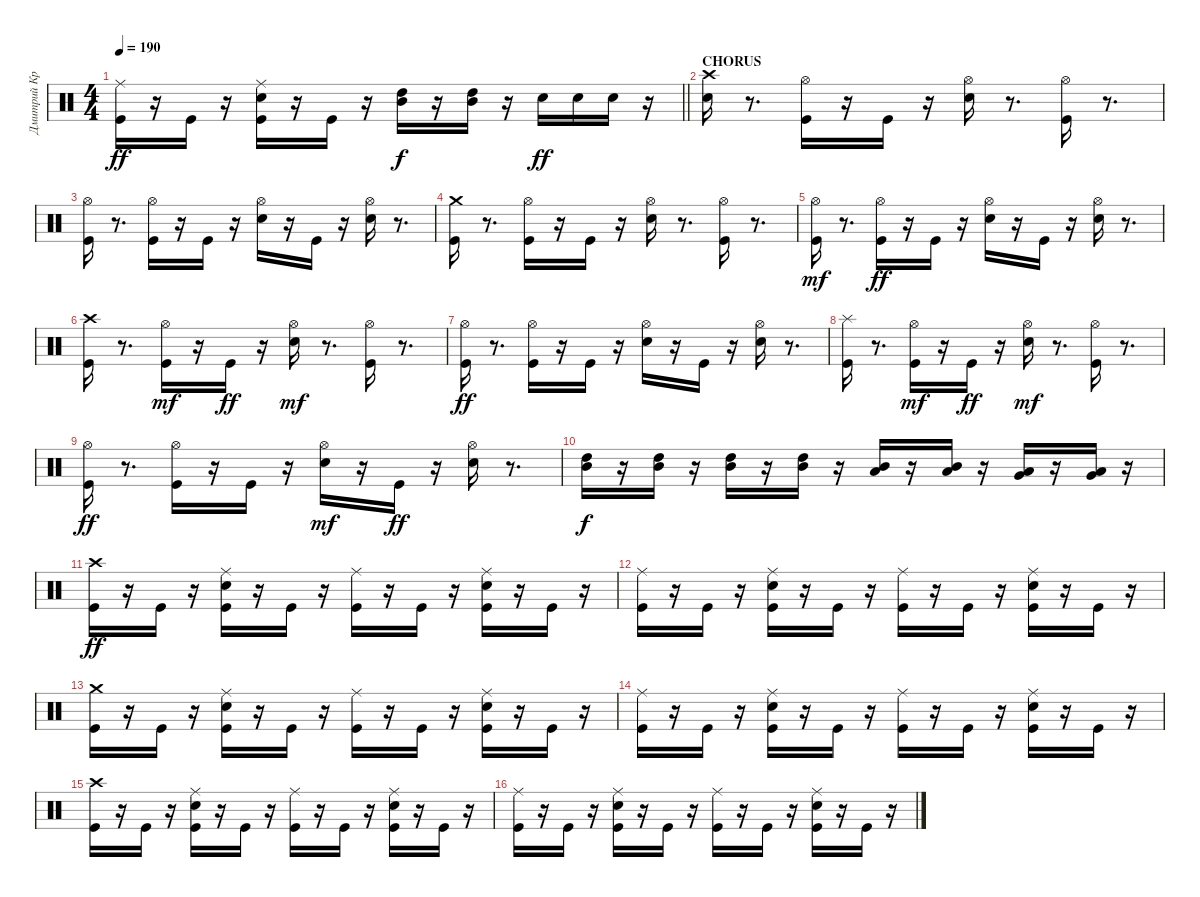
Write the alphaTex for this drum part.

\track ("Дмитрий Кривенков" "Дмитрий Кр") {instrument percussion}
\staff {score}
\articulation defaults
\ts (4 4)
\tempo 190
\clef neutral
\barLineRight lightlight
\ks c
("Ride (middle)" "Kick (hit)").16{dy ff} r.16 "Kick (hit)".16 r.16 ("Ride (middle)" "Kick (hit)" "Snare (hit) 2").16 r.16 "Kick (hit)".16 r.16 ("Mid Tom (hit)" "High Tom (hit)").16{dy f} r.16 ("Mid Tom (hit)" "High Tom (hit)").16 r.16 "Snare (hit) 2".16{dy ff} "Snare (hit) 2".16 "Snare (hit) 2".16 r.16 |
\section ("" "CHORUS")
("Snare (hit) 2" "Crash high (hit)").16 r.8{d} ("Hi-Hat (open)" "Kick (hit)").16 r.16 "Kick (hit)".16 r.16 ("Hi-Hat (open)" "Snare (hit) 2").16 r.8{d} ("Hi-Hat (open)" "Kick (hit)").16 r.8{d} |
("Hi-Hat (open)" "Kick (hit)").16 r.8{d} ("Hi-Hat (open)" "Kick (hit)").16 r.16 "Kick (hit)".16 r.16 ("Hi-Hat (open)" "Snare (hit) 2").16 r.16 "Kick (hit)".16 r.16 ("Hi-Hat (open)" "Snare (hit) 2").16 r.8{d} |
("Kick (hit)" "Crash medium (hit)").16 r.8{d} ("Hi-Hat (open)" "Kick (hit)").16 r.16 "Kick (hit)".16 r.16 ("Hi-Hat (open)" "Snare (hit) 2").16 r.8{d} ("Hi-Hat (open)" "Kick (hit)").16 r.8{d} |
("Kick (hit)" "Hi-Hat (open)").16{dy mf} r.8{d} ("Hi-Hat (open)" "Kick (hit)").16{dy ff} r.16 "Kick (hit)".16 r.16 ("Hi-Hat (open)" "Snare (hit) 2").16 r.16 "Kick (hit)".16 r.16 ("Hi-Hat (open)" "Snare (hit) 2").16 r.8{d} |
("Crash high (hit)" "Kick (hit)").16 r.8{d} ("Kick (hit)" "Hi-Hat (open)").16{dy mf} r.16 "Kick (hit)".16{dy ff} r.16 ("Snare (hit) 2" "Hi-Hat (open)").16{dy mf} r.8{d} ("Kick (hit)" "Hi-Hat (open)").16 r.8{d} |
("Hi-Hat (open)" "Kick (hit)").16{dy ff} r.8{d} ("Hi-Hat (open)" "Kick (hit)").16 r.16 "Kick (hit)".16 r.16 ("Hi-Hat (open)" "Snare (hit) 2").16 r.16 "Kick (hit)".16 r.16 ("Hi-Hat (open)" "Snare (hit) 2").16 r.8{d} |
("Splash (hit)" "Kick (hit)").16 r.8{d} ("Kick (hit)" "Hi-Hat (open)").16{dy mf} r.16 "Kick (hit)".16{dy ff} r.16 ("Snare (hit) 2" "Hi-Hat (open)").16{dy mf} r.8{d} ("Kick (hit)" "Hi-Hat (open)").16 r.8{d} |
("Hi-Hat (open)" "Kick (hit)").16{dy ff} r.8{d} ("Hi-Hat (open)" "Kick (hit)").16 r.16 "Kick (hit)".16 r.16 ("Snare (hit) 2" "Hi-Hat (open)").16{dy mf} r.16 "Kick (hit)".16{dy ff} r.16 ("Hi-Hat (open)" "Snare (hit) 2").16 r.8{d} |
("Mid Tom (hit)" "High Tom (hit)").16{dy f} r.16 ("Mid Tom (hit)" "High Tom (hit)").16 r.16 ("Mid Tom (hit)" "High Tom (hit)").16 r.16 ("Mid Tom (hit)" "High Tom (hit)").16 r.16 ("Low Tom (hit)" "Mid Tom (hit)").16 r.16 ("Low Tom (hit)" "Mid Tom (hit)").16 r.16 ("Very Low Tom (hit)" "Low Tom (hit)").16 r.16 ("Very Low Tom (hit)" "Low Tom (hit)").16 r.16 |
("Crash high (hit)" "Kick (hit)").16{dy ff} r.16 "Kick (hit)".16 r.16 ("Kick (hit)" "Snare (hit) 2" "Ride (middle)").16 r.16 "Kick (hit)".16 r.16 ("Ride (middle)" "Kick (hit)").16 r.16 "Kick (hit)".16 r.16 ("Ride (middle)" "Kick (hit)" "Snare (hit) 2").16 r.16 "Kick (hit)".16 r.16 |
("Ride (middle)" "Kick (hit)").16 r.16 "Kick (hit)".16 r.16 ("Ride (middle)" "Kick (hit)" "Snare (hit) 2").16 r.16 "Kick (hit)".16 r.16 ("Ride (middle)" "Kick (hit)").16 r.16 "Kick (hit)".16 r.16 ("Ride (middle)" "Kick (hit)" "Snare (hit) 2").16 r.16 "Kick (hit)".16 r.16 |
("Kick (hit)" "Crash medium (hit)").16 r.16 "Kick (hit)".16 r.16 ("Snare (hit) 2" "Kick (hit)" "Ride (middle)").16 r.16 "Kick (hit)".16 r.16 ("Kick (hit)" "Ride (middle)").16 r.16 "Kick (hit)".16 r.16 ("Snare (hit) 2" "Kick (hit)" "Ride (middle)").16 r.16 "Kick (hit)".16 r.16 |
("Kick (hit)" "Ride (middle)").16 r.16 "Kick (hit)".16 r.16 ("Snare (hit) 2" "Kick (hit)" "Ride (middle)").16 r.16 "Kick (hit)".16 r.16 ("Kick (hit)" "Ride (middle)").16 r.16 "Kick (hit)".16 r.16 ("Snare (hit) 2" "Kick (hit)" "Ride (middle)").16 r.16 "Kick (hit)".16 r.16 |
("Crash high (hit)" "Kick (hit)").16 r.16 "Kick (hit)".16 r.16 ("Kick (hit)" "Snare (hit) 2" "Ride (middle)").16 r.16 "Kick (hit)".16 r.16 ("Ride (middle)" "Kick (hit)").16 r.16 "Kick (hit)".16 r.16 ("Ride (middle)" "Kick (hit)" "Snare (hit) 2").16 r.16 "Kick (hit)".16 r.16 |
("Ride (middle)" "Kick (hit)").16 r.16 "Kick (hit)".16 r.16 ("Ride (middle)" "Kick (hit)" "Snare (hit) 2").16 r.16 "Kick (hit)".16 r.16 ("Ride (middle)" "Kick (hit)").16 r.16 "Kick (hit)".16 r.16 ("Ride (middle)" "Kick (hit)" "Snare (hit) 2").16 r.16 "Kick (hit)".16 r.16
